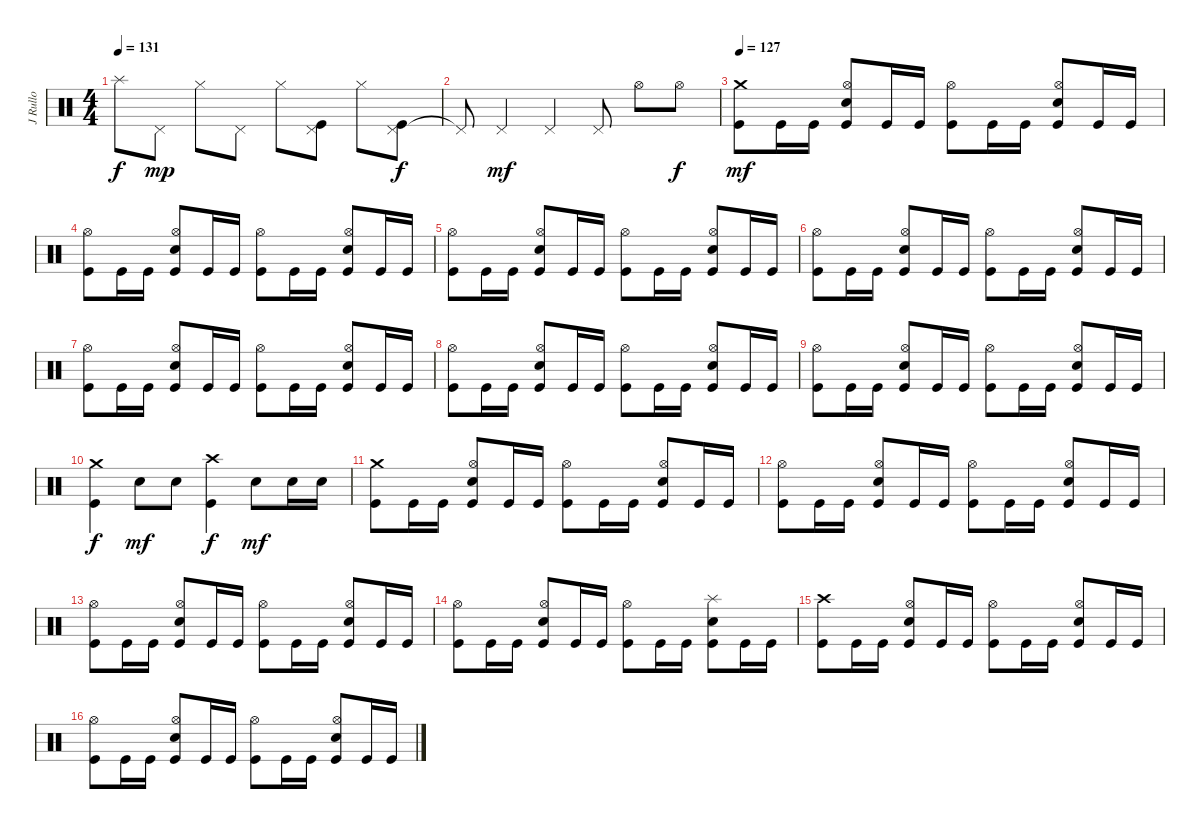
\track ("J Rullo" "J Rullo") {instrument percussion}
\staff {score}
\articulation defaults
\ts (4 4)
\tempo 131
\clef neutral
\ks c "Splash (hit)".8{dy f} "Pedal Hi-Hat (hit)".8{dy mp} "Hi-Hat (closed)".8 "Pedal Hi-Hat (hit)".8 "Hi-Hat (closed)".8
("Pedal Hi-Hat (hit)" "Kick (hit)").8 "Hi-Hat (closed)".8 ("Pedal Hi-Hat (hit)" "Kick (hit)").8{dy f} |
"Pedal Hi-Hat (hit)"{t}.8 "Pedal Hi-Hat (hit)".4{dy mf} "Pedal Hi-Hat (hit)".4 "Pedal Hi-Hat (hit)".8 "Hi-Hat (open)".8 "Hi-Hat (open)".8{dy f} |
\tempo 127
("Crash medium (hit)" "Kick (hit)").8{dy mf} "Kick (hit)".16 "Kick (hit)".16 ("Hi-Hat (open)" "Snare (hit) 2" "Kick (hit)").8 "Kick (hit)".16 "Kick (hit)".16 ("Hi-Hat (open)" "Kick (hit)").8 "Kick (hit)".16 "Kick (hit)".16 ("Hi-Hat (open)" "Snare (hit) 2" "Kick (hit)").8 "Kick (hit)".16 "Kick (hit)".16 |
("Hi-Hat (open)" "Kick (hit)").8 "Kick (hit)".16 "Kick (hit)".16 ("Hi-Hat (open)" "Snare (hit) 2" "Kick (hit)").8 "Kick (hit)".16 "Kick (hit)".16 ("Hi-Hat (open)" "Kick (hit)").8 "Kick (hit)".16 "Kick (hit)".16 ("Hi-Hat (open)" "Snare (hit) 2" "Kick (hit)").8 "Kick (hit)".16 "Kick (hit)".16 |
("Hi-Hat (open)" "Kick (hit)").8 "Kick (hit)".16 "Kick (hit)".16 ("Hi-Hat (open)" "Snare (hit) 2" "Kick (hit)").8 "Kick (hit)".16 "Kick (hit)".16 ("Hi-Hat (open)" "Kick (hit)").8 "Kick (hit)".16 "Kick (hit)".16 ("Hi-Hat (open)" "Snare (hit) 2" "Kick (hit)").8 "Kick (hit)".16 "Kick (hit)".16 |
("Hi-Hat (open)" "Kick (hit)").8 "Kick (hit)".16 "Kick (hit)".16 ("Hi-Hat (open)" "Snare (hit) 2" "Kick (hit)").8 "Kick (hit)".16 "Kick (hit)".16 ("Hi-Hat (open)" "Kick (hit)").8 "Kick (hit)".16 "Kick (hit)".16 ("Hi-Hat (open)" "Snare (hit) 2" "Kick (hit)").8 "Kick (hit)".16 "Kick (hit)".16 |
("Hi-Hat (open)" "Kick (hit)").8 "Kick (hit)".16 "Kick (hit)".16 ("Hi-Hat (open)" "Snare (hit) 2" "Kick (hit)").8 "Kick (hit)".16 "Kick (hit)".16 ("Hi-Hat (open)" "Kick (hit)").8 "Kick (hit)".16 "Kick (hit)".16 ("Hi-Hat (open)" "Snare (hit) 2" "Kick (hit)").8 "Kick (hit)".16 "Kick (hit)".16 |
("Hi-Hat (open)" "Kick (hit)").8 "Kick (hit)".16 "Kick (hit)".16 ("Hi-Hat (open)" "Snare (hit) 2" "Kick (hit)").8 "Kick (hit)".16 "Kick (hit)".16 ("Hi-Hat (open)" "Kick (hit)").8 "Kick (hit)".16 "Kick (hit)".16 ("Hi-Hat (open)" "Snare (hit) 2" "Kick (hit)").8 "Kick (hit)".16 "Kick (hit)".16 |
("Hi-Hat (open)" "Kick (hit)").8 "Kick (hit)".16 "Kick (hit)".16 ("Hi-Hat (open)" "Snare (hit) 2" "Kick (hit)").8 "Kick (hit)".16 "Kick (hit)".16 ("Hi-Hat (open)" "Kick (hit)").8 "Kick (hit)".16 "Kick (hit)".16 ("Hi-Hat (open)" "Snare (hit) 2" "Kick (hit)").8 "Kick (hit)".16 "Kick (hit)".16 |
("Crash medium (hit)" "Kick (hit)").4{dy f} "Snare (hit) 2".8{dy mf} "Electric Snare (hit)".8 ("Crash high (hit)" "Kick (hit)").4{dy f} "Snare (hit) 2".8{dy mf} "Electric Snare (hit)".16 "Electric Snare (hit)".16 |
("Crash medium (hit)" "Kick (hit)").8 "Kick (hit)".16 "Kick (hit)".16 ("Hi-Hat (open)" "Snare (hit) 2" "Kick (hit)").8 "Kick (hit)".16 "Kick (hit)".16 ("Hi-Hat (open)" "Kick (hit)").8 "Kick (hit)".16 "Kick (hit)".16 ("Hi-Hat (open)" "Snare (hit) 2" "Kick (hit)").8 "Kick (hit)".16 "Kick (hit)".16 |
("Hi-Hat (open)" "Kick (hit)").8 "Kick (hit)".16 "Kick (hit)".16 ("Hi-Hat (open)" "Snare (hit) 2" "Kick (hit)").8 "Kick (hit)".16 "Kick (hit)".16 ("Hi-Hat (open)" "Kick (hit)").8 "Kick (hit)".16 "Kick (hit)".16 ("Hi-Hat (open)" "Snare (hit) 2" "Kick (hit)").8 "Kick (hit)".16 "Kick (hit)".16 |
("Hi-Hat (open)" "Kick (hit)").8 "Kick (hit)".16 "Kick (hit)".16 ("Hi-Hat (open)" "Snare (hit) 2" "Kick (hit)").8 "Kick (hit)".16 "Kick (hit)".16 ("Hi-Hat (open)" "Kick (hit)").8 "Kick (hit)".16 "Kick (hit)".16 ("Hi-Hat (open)" "Snare (hit) 2" "Kick (hit)").8 "Kick (hit)".16 "Kick (hit)".16 |
("Hi-Hat (open)" "Kick (hit)").8 "Kick (hit)".16 "Kick (hit)".16 ("Hi-Hat (open)" "Snare (hit) 2" "Kick (hit)").8 "Kick (hit)".16 "Kick (hit)".16 ("Hi-Hat (open)" "Kick (hit)").8 "Kick (hit)".16 "Kick (hit)".16 ("Splash (hit)" "Snare (hit) 2" "Kick (hit)").8 "Kick (hit)".16 "Kick (hit)".16 |
("Crash high (hit)" "Kick (hit)").8 "Kick (hit)".16 "Kick (hit)".16 ("Hi-Hat (open)" "Snare (hit) 2" "Kick (hit)").8 "Kick (hit)".16 "Kick (hit)".16 ("Hi-Hat (open)" "Kick (hit)").8 "Kick (hit)".16 "Kick (hit)".16 ("Hi-Hat (open)" "Snare (hit) 2" "Kick (hit)").8 "Kick (hit)".16 "Kick (hit)".16 |
("Hi-Hat (open)" "Kick (hit)").8 "Kick (hit)".16 "Kick (hit)".16 ("Hi-Hat (open)" "Snare (hit) 2" "Kick (hit)").8 "Kick (hit)".16 "Kick (hit)".16 ("Hi-Hat (open)" "Kick (hit)").8 "Kick (hit)".16 "Kick (hit)".16 ("Hi-Hat (open)" "Snare (hit) 2" "Kick (hit)").8 "Kick (hit)".16 "Kick (hit)".16
